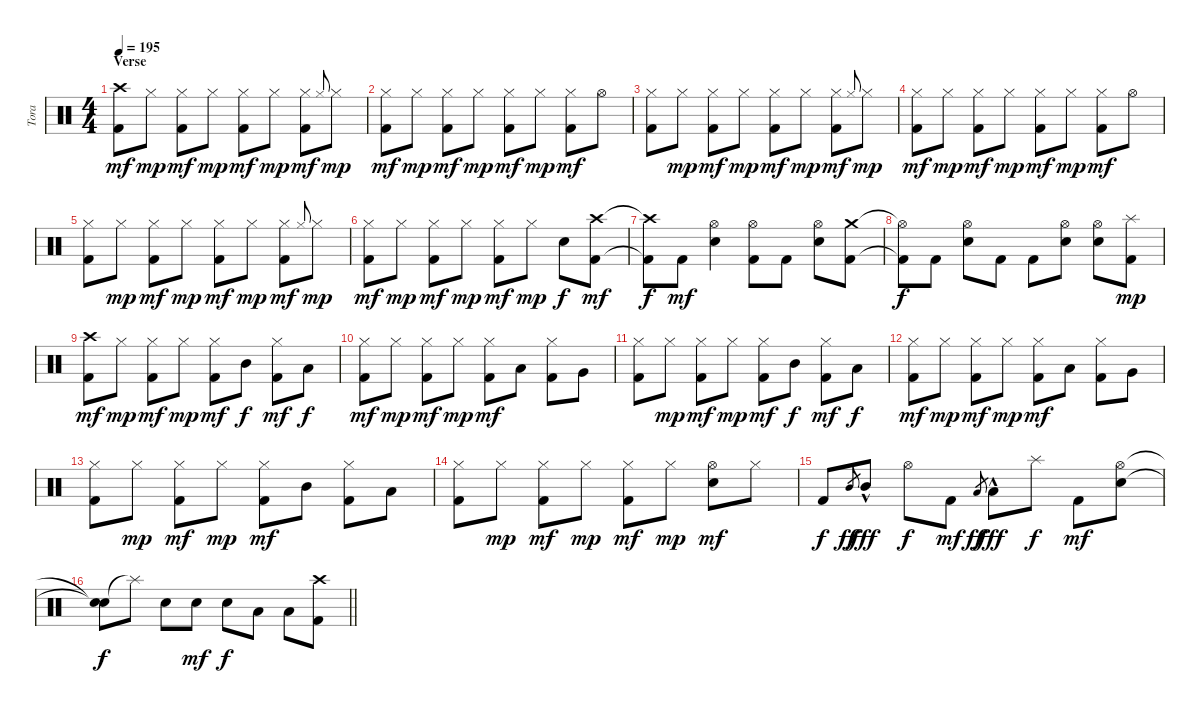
\track ("Tora" "Tora") {instrument percussion}
\staff {score}
\articulation defaults
\ts (4 4)
\section ("" "Verse")
\tempo 195
\clef neutral
\ks c
("Crash high (hit)" "Kick (hit) 2").8{dy mf} "Hi-Hat (closed)".8{dy mp} ("Hi-Hat (closed)" "Kick (hit) 2").8{dy mf} "Hi-Hat (closed)".8{dy mp} ("Hi-Hat (closed)" "Kick (hit) 2").8{dy mf} "Hi-Hat (closed)".8{dy mp} ("Hi-Hat (closed)" "Kick (hit) 2").8{dy mf} "Hi-Hat (closed)".8{gr onbeat} "Hi-Hat (closed)".8{dy mp} |
("Hi-Hat (closed)" "Kick (hit) 2").8{dy mf} "Hi-Hat (closed)".8{dy mp} ("Hi-Hat (closed)" "Kick (hit) 2").8{dy mf} "Hi-Hat (closed)".8{dy mp} ("Hi-Hat (closed)" "Kick (hit) 2").8{dy mf} "Hi-Hat (closed)".8{dy mp} ("Hi-Hat (closed)" "Kick (hit) 2").8{dy mf} "Hi-Hat (open)".8 |
("Hi-Hat (closed)" "Kick (hit) 2").8 "Hi-Hat (closed)".8{dy mp} ("Hi-Hat (closed)" "Kick (hit) 2").8{dy mf} "Hi-Hat (closed)".8{dy mp} ("Hi-Hat (closed)" "Kick (hit) 2").8{dy mf} "Hi-Hat (closed)".8{dy mp} ("Hi-Hat (closed)" "Kick (hit) 2").8{dy mf} "Hi-Hat (closed)".8{gr onbeat} "Hi-Hat (closed)".8{dy mp} |
("Hi-Hat (closed)" "Kick (hit) 2").8{dy mf} "Hi-Hat (closed)".8{dy mp} ("Hi-Hat (closed)" "Kick (hit) 2").8{dy mf} "Hi-Hat (closed)".8{dy mp} ("Hi-Hat (closed)" "Kick (hit) 2").8{dy mf} "Hi-Hat (closed)".8{dy mp} ("Hi-Hat (closed)" "Kick (hit) 2").8{dy mf} "Hi-Hat (open)".8 |
("Hi-Hat (closed)" "Kick (hit) 2").8 "Hi-Hat (closed)".8{dy mp} ("Hi-Hat (closed)" "Kick (hit) 2").8{dy mf} "Hi-Hat (closed)".8{dy mp} ("Hi-Hat (closed)" "Kick (hit) 2").8{dy mf} "Hi-Hat (closed)".8{dy mp} ("Hi-Hat (closed)" "Kick (hit) 2").8{dy mf} "Hi-Hat (closed)".8{gr onbeat} "Hi-Hat (closed)".8{dy mp} |
("Hi-Hat (closed)" "Kick (hit) 2").8{dy mf} "Hi-Hat (closed)".8{dy mp} ("Hi-Hat (closed)" "Kick (hit) 2").8{dy mf} "Hi-Hat (closed)".8{dy mp} ("Hi-Hat (closed)" "Kick (hit) 2").8{dy mf} "Hi-Hat (closed)".8{dy mp} "Electric Snare (hit)".8{dy f} ("Crash high (hit)" "Kick (hit) 2").8{dy mf} |
("Crash high (hit)"{t} "Kick (hit) 2"{t}).8{dy f} "Kick (hit) 2".8{dy mf} ("Hi-Hat (open)" "Electric Snare (hit)").4 ("Hi-Hat (open)" "Kick (hit) 2").8 "Kick (hit) 2".8 ("Hi-Hat (open)" "Electric Snare (hit)").8 ("Crash medium (hit)" "Kick (hit) 2").8 |
("Hi-Hat (open)"{t} "Kick (hit) 2"{t}).8{dy f} "Kick (hit) 2".8 ("Hi-Hat (open)" "Electric Snare (hit)").8 "Kick (hit) 2".8 "Kick (hit) 2".8 ("Hi-Hat (open)" "Electric Snare (hit)").8 ("Hi-Hat (open)" "Electric Snare (hit)").8 ("Splash (hit)" "Kick (hit) 2").8{dy mp} |
("Crash high (hit)" "Kick (hit) 2").8{dy mf} "Hi-Hat (closed)".8{dy mp} ("Hi-Hat (closed)" "Kick (hit) 2").8{dy mf} "Hi-Hat (closed)".8{dy mp} ("Hi-Hat (closed)" "Kick (hit) 2").8{dy mf} "Mid Tom (hit)".8{dy f} ("Hi-Hat (closed)" "Kick (hit) 2").8{dy mf} "Low Tom (hit)".8{dy f} |
("Hi-Hat (closed)" "Kick (hit) 2").8{dy mf} "Hi-Hat (closed)".8{dy mp} ("Hi-Hat (closed)" "Kick (hit) 2").8{dy mf} "Hi-Hat (closed)".8{dy mp} ("Hi-Hat (closed)" "Kick (hit) 2").8{dy mf} "Low Tom (hit)".8 ("Hi-Hat (closed)" "Kick (hit) 2").8 "Very Low Tom (hit)".8 |
("Hi-Hat (closed)" "Kick (hit) 2").8 "Hi-Hat (closed)".8{dy mp} ("Hi-Hat (closed)" "Kick (hit) 2").8{dy mf} "Hi-Hat (closed)".8{dy mp} ("Hi-Hat (closed)" "Kick (hit) 2").8{dy mf} "Mid Tom (hit)".8{dy f} ("Hi-Hat (closed)" "Kick (hit) 2").8{dy mf} "Low Tom (hit)".8{dy f} |
("Hi-Hat (closed)" "Kick (hit) 2").8{dy mf} "Hi-Hat (closed)".8{dy mp} ("Hi-Hat (closed)" "Kick (hit) 2").8{dy mf} "Hi-Hat (closed)".8{dy mp} ("Hi-Hat (closed)" "Kick (hit) 2").8{dy mf} "Low Tom (hit)".8 ("Hi-Hat (closed)" "Kick (hit) 2").8 "Very Low Tom (hit)".8 |
("Hi-Hat (closed)" "Kick (hit) 2").8 "Hi-Hat (closed)".8{dy mp} ("Hi-Hat (closed)" "Kick (hit) 2").8{dy mf} "Hi-Hat (closed)".8{dy mp} ("Hi-Hat (closed)" "Kick (hit) 2").8{dy mf} "Mid Tom (hit)".8 ("Hi-Hat (closed)" "Kick (hit) 2").8 "Low Tom (hit)".8 |
("Hi-Hat (closed)" "Kick (hit) 2").8 "Hi-Hat (closed)".8{dy mp} ("Hi-Hat (closed)" "Kick (hit) 2").8{dy mf} "Hi-Hat (closed)".8{dy mp} ("Hi-Hat (closed)" "Kick (hit) 2").8{dy mf} "Hi-Hat (closed)".8{dy mp} ("Hi-Hat (open)" "Electric Snare (hit)").8{dy mf} "Hi-Hat (closed)".8 |
"Kick (hit) 2".8{dy f} "Mid Tom (hit)".8{gr dy ff} "Mid Tom (hit)"{hac}.8{dy fff} "Hi-Hat (open)".8{dy f} "Kick (hit) 2".8{dy mf} "Low Tom (hit)".8{gr dy ff} "Low Tom (hit)"{hac}.8{dy fff} "Splash (hit)".8{dy f} "Kick (hit) 2".8{dy mf} ("Hi-Hat (open)" "Electric Snare (hit)").8 |
\barLineRight lightlight
("Snare (hit)"{t} "Snare (hit)"{t}).8{dy f} "Splash (hit)"{t}.8 "Electric Snare (hit)".8 "Electric Snare (hit)".8{dy mf} "Electric Snare (hit)".8{dy f} "Low Tom (hit)".8 "Low Tom (hit)".8 ("Crash high (hit)" "Kick (hit) 2").8
